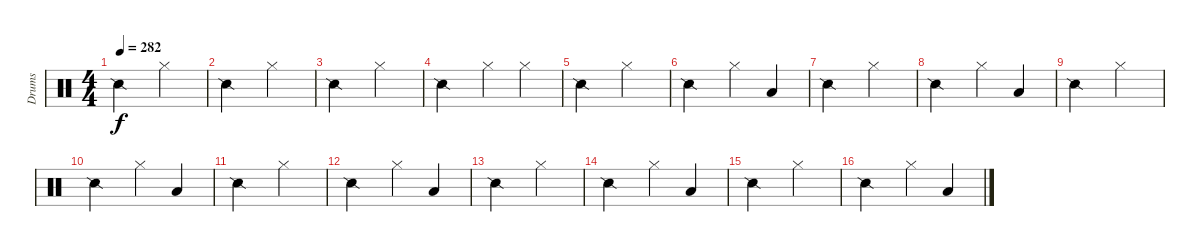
\track ("Drums" "Drums") {instrument percussion}
\staff {score}
\articulation defaults
\ts (4 4)
\tempo 282
\clef neutral
\ks c "Snare (side stick) 2".2{dy f} "Hi-Hat (closed)".2
|
"Snare (side stick) 2".2 "Hi-Hat (closed)".2 |
"Snare (side stick) 2".2 "Hi-Hat (closed)".2 |
"Snare (side stick) 2".2 "Hi-Hat (closed)".4 "Hi-Hat (closed)".4 |
"Snare (side stick) 2".2 "Hi-Hat (closed)".2 |
"Snare (side stick) 2".2 "Hi-Hat (closed)".4 "Low Tom (hit)".4 |
"Snare (side stick) 2".2 "Hi-Hat (closed)".2 |
"Snare (side stick) 2".2 "Hi-Hat (closed)".4 "Low Tom (hit)".4 |
"Snare (side stick) 2".2 "Hi-Hat (closed)".2 |
"Snare (side stick) 2".2 "Hi-Hat (closed)".4 "Low Tom (hit)".4 |
"Snare (side stick) 2".2 "Hi-Hat (closed)".2 |
"Snare (side stick) 2".2 "Hi-Hat (closed)".4 "Low Tom (hit)".4 |
"Snare (side stick) 2".2 "Hi-Hat (closed)".2 |
"Snare (side stick) 2".2 "Hi-Hat (closed)".4 "Low Tom (hit)".4 |
"Snare (side stick) 2".2 "Hi-Hat (closed)".2 |
"Snare (side stick) 2".2 "Hi-Hat (closed)".4 "Low Tom (hit)".4
